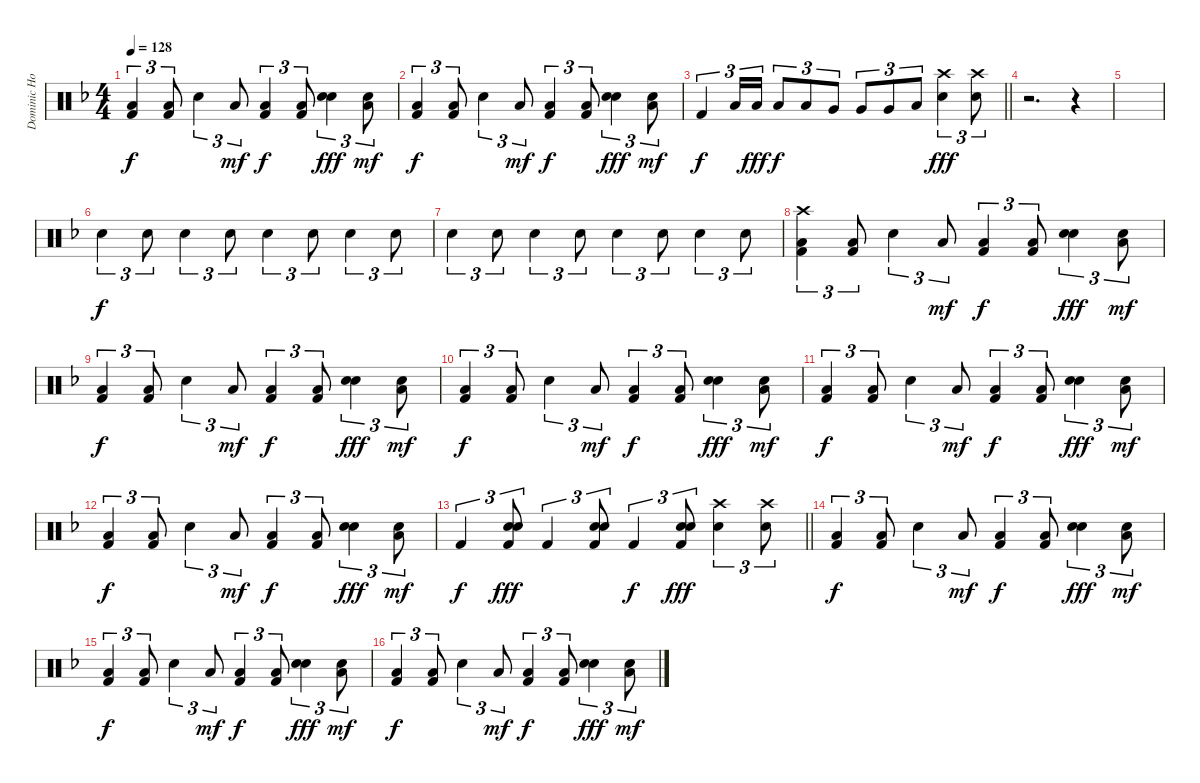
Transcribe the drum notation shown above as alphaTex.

\track ("Dominic Howard Drums" "Dominic Ho") {instrument percussion}
\staff {score}
\articulation defaults
\ts (4 4)
\tempo 128
\clef neutral
\ks dminor
("Low Floor Tom (hit)" "Kick (hit) 2").4{tu (3 2) dy f} ("Low Floor Tom (hit)" "Kick (hit) 2").8{tu (3 2)} "Snare (hit) 2".4{tu (3 2)} "Low Tom (hit)".8{tu (3 2) dy mf} ("Low Floor Tom (hit)" "Kick (hit) 2").4{tu (3 2) dy f} ("Low Floor Tom (hit)" "Kick (hit) 2").8{tu (3 2)} ("Hand Clap (hit)" "Snare (hit) 2").4{tu (3 2) dy fff} ("Hand Clap (hit)" "Low Tom (hit)").8{tu (3 2) dy mf} |
("Low Floor Tom (hit)" "Kick (hit) 2").4{tu (3 2) dy f} ("Low Floor Tom (hit)" "Kick (hit) 2").8{tu (3 2)} "Snare (hit) 2".4{tu (3 2)} "Low Tom (hit)".8{tu (3 2) dy mf} ("Low Floor Tom (hit)" "Kick (hit) 2").4{tu (3 2) dy f} ("Low Floor Tom (hit)" "Kick (hit) 2").8{tu (3 2)} ("Hand Clap (hit)" "Snare (hit) 2").4{tu (3 2) dy fff} ("Hand Clap (hit)" "Low Tom (hit)").8{tu (3 2) dy mf} |
\barLineRight lightlight "Kick (hit) 2".4{tu (3 2) dy f} "Low Tom (hit)".16{tu (3 2)} "Low Tom (hit)".16{tu (3 2) dy fff} "Low Tom (hit)".8{tu (3 2) dy f} "Low Tom (hit)".8{tu (3 2)} "Very Low Tom (hit)".8{tu (3 2)} "Very Low Tom (hit)".8{tu (3 2)} "Very Low Tom (hit)".8{tu (3 2)} "Low Floor Tom (hit)".8{tu (3 2)}
("Crash high (hit)" "Snare (hit) 2").4{tu (3 2) dy fff} ("Crash high (hit)" "Snare (hit) 2").8{tu (3 2)} |
r.2{d} r.4{volume 0} |
|
"Snare (hit) 2".4{tu (3 2) dy f} "Snare (hit) 2".8{tu (3 2)} "Snare (hit) 2".4{tu (3 2)} "Snare (hit) 2".8{tu (3 2)} "Snare (hit) 2".4{tu (3 2)} "Snare (hit) 2".8{tu (3 2)} "Snare (hit) 2".4{tu (3 2)} "Snare (hit) 2".8{tu (3 2)} |
"Snare (hit) 2".4{tu (3 2)} "Snare (hit) 2".8{tu (3 2)} "Snare (hit) 2".4{tu (3 2)} "Snare (hit) 2".8{tu (3 2)} "Snare (hit) 2".4{tu (3 2)} "Snare (hit) 2".8{tu (3 2)} "Snare (hit) 2".4{tu (3 2)} "Snare (hit) 2".8{tu (3 2)} |
("Crash high (hit)" "Low Floor Tom (hit)" "Kick (hit) 2").4{tu (3 2)} ("Low Floor Tom (hit)" "Kick (hit) 2").8{tu (3 2)} "Snare (hit) 2".4{tu (3 2)} "Low Tom (hit)".8{tu (3 2) dy mf} ("Low Floor Tom (hit)" "Kick (hit) 2").4{tu (3 2) dy f} ("Low Floor Tom (hit)" "Kick (hit) 2").8{tu (3 2)} ("Hand Clap (hit)" "Snare (hit) 2").4{tu (3 2) dy fff} ("Hand Clap (hit)" "Low Tom (hit)").8{tu (3 2) dy mf} |
("Low Floor Tom (hit)" "Kick (hit) 2").4{tu (3 2) dy f} ("Low Floor Tom (hit)" "Kick (hit) 2").8{tu (3 2)} "Snare (hit) 2".4{tu (3 2)} "Low Tom (hit)".8{tu (3 2) dy mf} ("Low Floor Tom (hit)" "Kick (hit) 2").4{tu (3 2) dy f} ("Low Floor Tom (hit)" "Kick (hit) 2").8{tu (3 2)} ("Hand Clap (hit)" "Snare (hit) 2").4{tu (3 2) dy fff} ("Hand Clap (hit)" "Low Tom (hit)").8{tu (3 2) dy mf} |
("Low Floor Tom (hit)" "Kick (hit) 2").4{tu (3 2) dy f} ("Low Floor Tom (hit)" "Kick (hit) 2").8{tu (3 2)} "Snare (hit) 2".4{tu (3 2)} "Low Tom (hit)".8{tu (3 2) dy mf} ("Low Floor Tom (hit)" "Kick (hit) 2").4{tu (3 2) dy f} ("Low Floor Tom (hit)" "Kick (hit) 2").8{tu (3 2)} ("Hand Clap (hit)" "Snare (hit) 2").4{tu (3 2) dy fff} ("Hand Clap (hit)" "Low Tom (hit)").8{tu (3 2) dy mf} |
("Low Floor Tom (hit)" "Kick (hit) 2").4{tu (3 2) dy f} ("Low Floor Tom (hit)" "Kick (hit) 2").8{tu (3 2)} "Snare (hit) 2".4{tu (3 2)} "Low Tom (hit)".8{tu (3 2) dy mf} ("Low Floor Tom (hit)" "Kick (hit) 2").4{tu (3 2) dy f} ("Low Floor Tom (hit)" "Kick (hit) 2").8{tu (3 2)} ("Hand Clap (hit)" "Snare (hit) 2").4{tu (3 2) dy fff} ("Hand Clap (hit)" "Low Tom (hit)").8{tu (3 2) dy mf} |
("Low Floor Tom (hit)" "Kick (hit) 2").4{tu (3 2) dy f} ("Low Floor Tom (hit)" "Kick (hit) 2").8{tu (3 2)} "Snare (hit) 2".4{tu (3 2)} "Low Tom (hit)".8{tu (3 2) dy mf} ("Low Floor Tom (hit)" "Kick (hit) 2").4{tu (3 2) dy f} ("Low Floor Tom (hit)" "Kick (hit) 2").8{tu (3 2)} ("Hand Clap (hit)" "Snare (hit) 2").4{tu (3 2) dy fff} ("Hand Clap (hit)" "Low Tom (hit)").8{tu (3 2) dy mf} |
\barLineRight lightlight "Kick (hit) 2".4{tu (3 2) dy f}
("Electric Snare (hit)" "Snare (hit) 2" "Kick (hit) 2").8{tu (3 2) dy fff} "Kick (hit) 2".4{tu (3 2)} ("Electric Snare (hit)" "Snare (hit) 2" "Kick (hit) 2").8{tu (3 2)} "Kick (hit) 2".4{tu (3 2) dy f} ("Electric Snare (hit)" "Snare (hit) 2" "Kick (hit) 2").8{tu (3 2) dy fff} ("Crash high (hit)" "Snare (hit) 2").4{tu (3 2)} ("Crash high (hit)" "Snare (hit) 2").8{tu (3 2)} |
("Low Floor Tom (hit)" "Kick (hit) 2").4{tu (3 2) dy f} ("Low Floor Tom (hit)" "Kick (hit) 2").8{tu (3 2)} "Snare (hit) 2".4{tu (3 2)} "Low Tom (hit)".8{tu (3 2) dy mf} ("Low Floor Tom (hit)" "Kick (hit) 2").4{tu (3 2) dy f} ("Low Floor Tom (hit)" "Kick (hit) 2").8{tu (3 2)} ("Hand Clap (hit)" "Snare (hit) 2").4{tu (3 2) dy fff} ("Hand Clap (hit)" "Low Tom (hit)").8{tu (3 2) dy mf} |
("Low Floor Tom (hit)" "Kick (hit) 2").4{tu (3 2) dy f} ("Low Floor Tom (hit)" "Kick (hit) 2").8{tu (3 2)} "Snare (hit) 2".4{tu (3 2)} "Low Tom (hit)".8{tu (3 2) dy mf} ("Low Floor Tom (hit)" "Kick (hit) 2").4{tu (3 2) dy f} ("Low Floor Tom (hit)" "Kick (hit) 2").8{tu (3 2)} ("Hand Clap (hit)" "Snare (hit) 2").4{tu (3 2) dy fff} ("Hand Clap (hit)" "Low Tom (hit)").8{tu (3 2) dy mf} |
("Low Floor Tom (hit)" "Kick (hit) 2").4{tu (3 2) dy f} ("Low Floor Tom (hit)" "Kick (hit) 2").8{tu (3 2)} "Snare (hit) 2".4{tu (3 2)} "Low Tom (hit)".8{tu (3 2) dy mf} ("Low Floor Tom (hit)" "Kick (hit) 2").4{tu (3 2) dy f} ("Low Floor Tom (hit)" "Kick (hit) 2").8{tu (3 2)} ("Hand Clap (hit)" "Snare (hit) 2").4{tu (3 2) dy fff} ("Hand Clap (hit)" "Low Tom (hit)").8{tu (3 2) dy mf}
